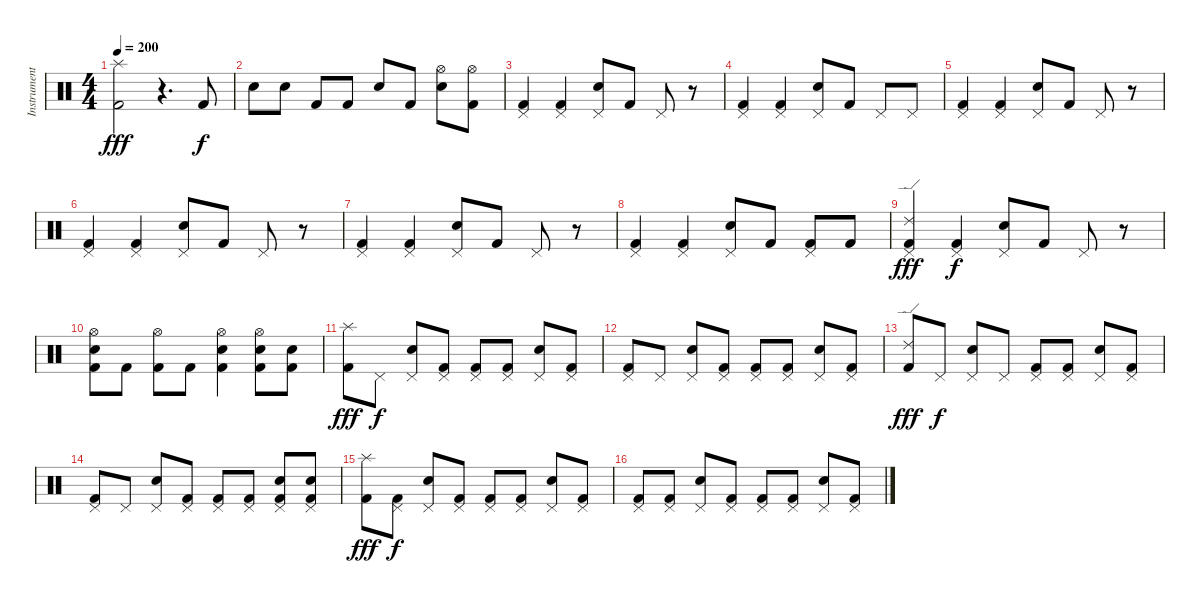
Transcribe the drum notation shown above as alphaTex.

\track ("Instrument 03" "Instrument") {instrument percussion}
\staff {score}
\articulation defaults
\ts (4 4)
\tempo 200
\clef neutral
\ks c
("Kick (hit) 2" "Splash (hit)").2{dy fff} r.4{d} "Kick (hit) 2".8{dy f} |
"Snare (hit) 2".8 "Snare (hit) 2".8 "Kick (hit) 2".8 "Kick (hit) 2".8 "Snare (hit) 2".8 "Kick (hit) 2".8 ("Snare (hit) 2" "Hi-Hat (open)").8 ("Kick (hit) 2" "Hi-Hat (open)").8 |
("Kick (hit) 2" "Pedal Hi-Hat (hit)").4 ("Kick (hit) 2" "Pedal Hi-Hat (hit)").4 ("Snare (hit) 2" "Pedal Hi-Hat (hit)").8 "Kick (hit) 2".8 "Pedal Hi-Hat (hit)".8 r.8 |
("Kick (hit) 2" "Pedal Hi-Hat (hit)").4 ("Kick (hit) 2" "Pedal Hi-Hat (hit)").4 ("Snare (hit) 2" "Pedal Hi-Hat (hit)").8 "Kick (hit) 2".8 "Pedal Hi-Hat (hit)".8 "Pedal Hi-Hat (hit)".8 |
("Kick (hit) 2" "Pedal Hi-Hat (hit)").4 ("Kick (hit) 2" "Pedal Hi-Hat (hit)").4 ("Snare (hit) 2" "Pedal Hi-Hat (hit)").8 "Kick (hit) 2".8 "Pedal Hi-Hat (hit)".8 r.8 |
("Kick (hit) 2" "Pedal Hi-Hat (hit)").4 ("Kick (hit) 2" "Pedal Hi-Hat (hit)").4 ("Snare (hit) 2" "Pedal Hi-Hat (hit)").8 "Kick (hit) 2".8 "Pedal Hi-Hat (hit)".8 r.8 |
("Kick (hit) 2" "Pedal Hi-Hat (hit)").4 ("Kick (hit) 2" "Pedal Hi-Hat (hit)").4 ("Snare (hit) 2" "Pedal Hi-Hat (hit)").8 "Kick (hit) 2".8 "Pedal Hi-Hat (hit)".8 r.8 |
("Kick (hit) 2" "Pedal Hi-Hat (hit)").4 ("Kick (hit) 2" "Pedal Hi-Hat (hit)").4 ("Snare (hit) 2" "Pedal Hi-Hat (hit)").8 "Kick (hit) 2".8 ("Kick (hit) 2" "Pedal Hi-Hat (hit)").8 "Kick (hit) 2".8 |
("Kick (hit) 2" "Pedal Hi-Hat (hit)" "Ride (edge) 2").4{dy fff} ("Kick (hit) 2" "Pedal Hi-Hat (hit)").4{dy f} ("Snare (hit) 2" "Pedal Hi-Hat (hit)").8 "Kick (hit) 2".8 "Pedal Hi-Hat (hit)".8 r.8 |
("Kick (hit) 2" "Snare (hit) 2" "Hi-Hat (open)").8 "Kick (hit) 2".8 ("Kick (hit) 2" "Hi-Hat (open)").8 "Kick (hit) 2".8 ("Kick (hit) 2" "Snare (hit) 2" "Hi-Hat (open)").4 ("Kick (hit) 2" "Snare (hit) 2" "Hi-Hat (open)").8 ("Kick (hit) 2" "Snare (hit) 2").8 |
("Kick (hit) 2" "Splash (hit)").8{dy fff} "Pedal Hi-Hat (hit)".8{dy f} ("Snare (hit) 2" "Pedal Hi-Hat (hit)").8 ("Kick (hit) 2" "Pedal Hi-Hat (hit)").8 ("Kick (hit) 2" "Pedal Hi-Hat (hit)").8 ("Kick (hit) 2" "Pedal Hi-Hat (hit)").8 ("Snare (hit) 2" "Pedal Hi-Hat (hit)").8 ("Kick (hit) 2" "Pedal Hi-Hat (hit)").8 |
("Kick (hit) 2" "Pedal Hi-Hat (hit)").8 "Pedal Hi-Hat (hit)".8 ("Snare (hit) 2" "Pedal Hi-Hat (hit)").8 ("Kick (hit) 2" "Pedal Hi-Hat (hit)").8 ("Kick (hit) 2" "Pedal Hi-Hat (hit)").8 ("Kick (hit) 2" "Pedal Hi-Hat (hit)").8 ("Snare (hit) 2" "Pedal Hi-Hat (hit)").8 ("Kick (hit) 2" "Pedal Hi-Hat (hit)").8 |
("Kick (hit) 2" "Ride (edge) 2").8{dy fff} "Pedal Hi-Hat (hit)".8{dy f} ("Snare (hit) 2" "Pedal Hi-Hat (hit)").8 "Pedal Hi-Hat (hit)".8 ("Kick (hit) 2" "Pedal Hi-Hat (hit)").8 ("Kick (hit) 2" "Pedal Hi-Hat (hit)").8 ("Snare (hit) 2" "Pedal Hi-Hat (hit)").8 ("Kick (hit) 2" "Pedal Hi-Hat (hit)").8 |
("Kick (hit) 2" "Pedal Hi-Hat (hit)").8 "Pedal Hi-Hat (hit)".8 ("Snare (hit) 2" "Pedal Hi-Hat (hit)").8 ("Kick (hit) 2" "Pedal Hi-Hat (hit)").8 ("Kick (hit) 2" "Pedal Hi-Hat (hit)").8 ("Kick (hit) 2" "Pedal Hi-Hat (hit)").8 ("Kick (hit) 2" "Snare (hit) 2" "Pedal Hi-Hat (hit)").8 ("Kick (hit) 2" "Snare (hit) 2" "Pedal Hi-Hat (hit)").8 |
("Kick (hit) 2" "Splash (hit)").8{dy fff} ("Kick (hit) 2" "Pedal Hi-Hat (hit)").8{dy f} ("Snare (hit) 2" "Pedal Hi-Hat (hit)").8 ("Kick (hit) 2" "Pedal Hi-Hat (hit)").8 ("Kick (hit) 2" "Pedal Hi-Hat (hit)").8 ("Kick (hit) 2" "Pedal Hi-Hat (hit)").8 ("Snare (hit) 2" "Pedal Hi-Hat (hit)").8 ("Kick (hit) 2" "Pedal Hi-Hat (hit)").8 |
("Kick (hit) 2" "Pedal Hi-Hat (hit)").8 ("Kick (hit) 2" "Pedal Hi-Hat (hit)").8 ("Snare (hit) 2" "Pedal Hi-Hat (hit)").8 ("Kick (hit) 2" "Pedal Hi-Hat (hit)").8 ("Kick (hit) 2" "Pedal Hi-Hat (hit)").8 ("Kick (hit) 2" "Pedal Hi-Hat (hit)").8 ("Snare (hit) 2" "Pedal Hi-Hat (hit)").8 ("Kick (hit) 2" "Pedal Hi-Hat (hit)").8
